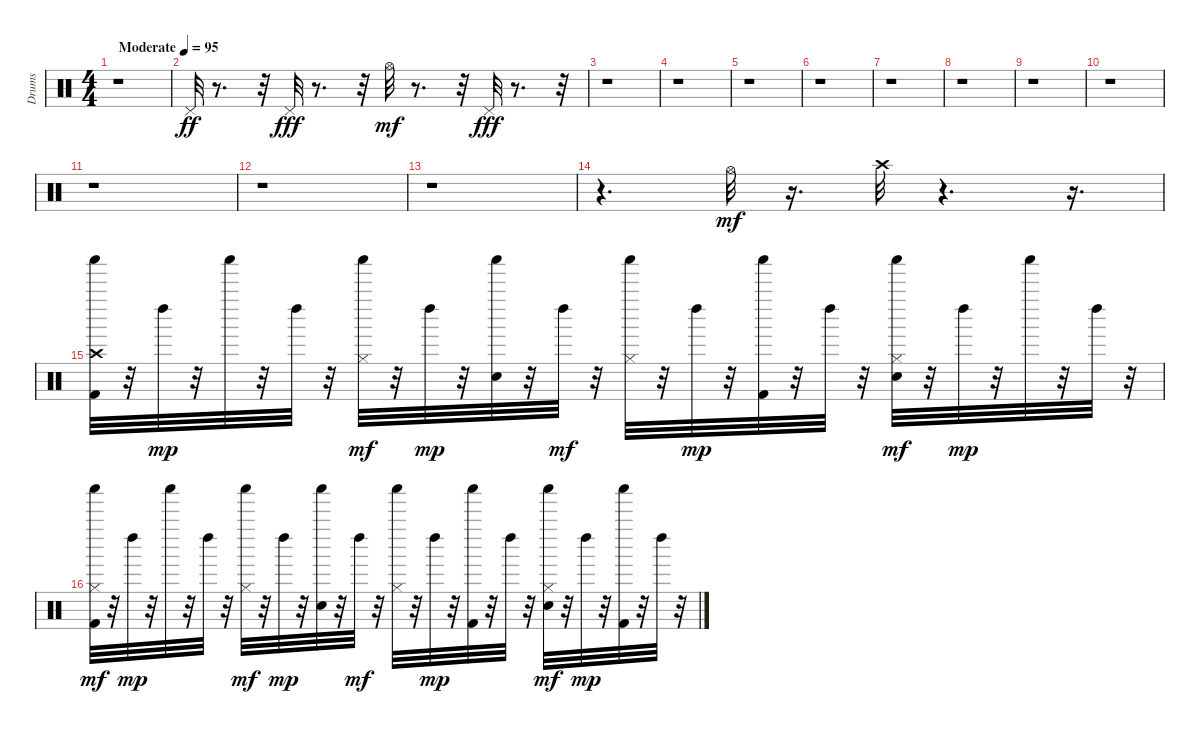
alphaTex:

\track ("Drums" "Drums") {instrument percussion}
\staff {score}
\articulation defaults
\ts (4 4)
\tempo (95 "Moderate")
\clef neutral
\ks c
r.1{dy ff} |
"Pedal Hi-Hat (hit)".32 r.8{d} r.32 "Pedal Hi-Hat (hit)".32{dy fff} r.8{d} r.32 "Hi-Hat (open)".32{dy mf} r.8{d} r.32 "Pedal Hi-Hat (hit)".32{dy fff} r.8{d} r.32 |
r.1 |
r.1 |
r.1 |
r.1 |
r.1 |
r.1 |
r.1 |
r.1 |
r.1 |
r.1 |
r.1 |
r.4{d} "Hi-Hat (open)".32{dy mf} r.16{d} "Crash high (hit)".32 r.4{d} r.16{d} |
("Kick (hit) 2" "Crash high (hit)" "Shaker (hit)").32 r.32 "Left Maraca (hit)".32{dy mp} r.32 "Shaker (hit)".32 r.32 "Left Maraca (hit)".32 r.32 ("Hi-Hat (closed)" "Shaker (hit)").32{dy mf} r.32 "Left Maraca (hit)".32{dy mp} r.32 ("Electric Snare (hit)" "Shaker (hit)").32 r.32 "Left Maraca (hit)".32{dy mf} r.32 ("Hi-Hat (closed)" "Shaker (hit)").32 r.32 "Left Maraca (hit)".32{dy mp} r.32 ("Kick (hit) 2" "Shaker (hit)").32 r.32 "Left Maraca (hit)".32 r.32 ("Electric Snare (hit)" "Hi-Hat (closed)" "Shaker (hit)").32{dy mf} r.32 "Left Maraca (hit)".32{dy mp} r.32 "Shaker (hit)".32 r.32 "Left Maraca (hit)".32 r.32 |
("Kick (hit) 2" "Hi-Hat (closed)" "Shaker (hit)").32{dy mf} r.32 "Left Maraca (hit)".32{dy mp} r.32 "Shaker (hit)".32 r.32 "Left Maraca (hit)".32 r.32 ("Hi-Hat (closed)" "Shaker (hit)").32{dy mf} r.32 "Left Maraca (hit)".32{dy mp} r.32 ("Electric Snare (hit)" "Shaker (hit)").32 r.32 "Left Maraca (hit)".32{dy mf} r.32 ("Hi-Hat (closed)" "Shaker (hit)").32 r.32 "Left Maraca (hit)".32{dy mp} r.32 ("Kick (hit) 2" "Shaker (hit)").32 r.32 "Left Maraca (hit)".32 r.32 ("Electric Snare (hit)" "Hi-Hat (closed)" "Shaker (hit)").32{dy mf} r.32 "Left Maraca (hit)".32{dy mp} r.32 ("Kick (hit) 2" "Shaker (hit)").32 r.32 "Left Maraca (hit)".32 r.32
